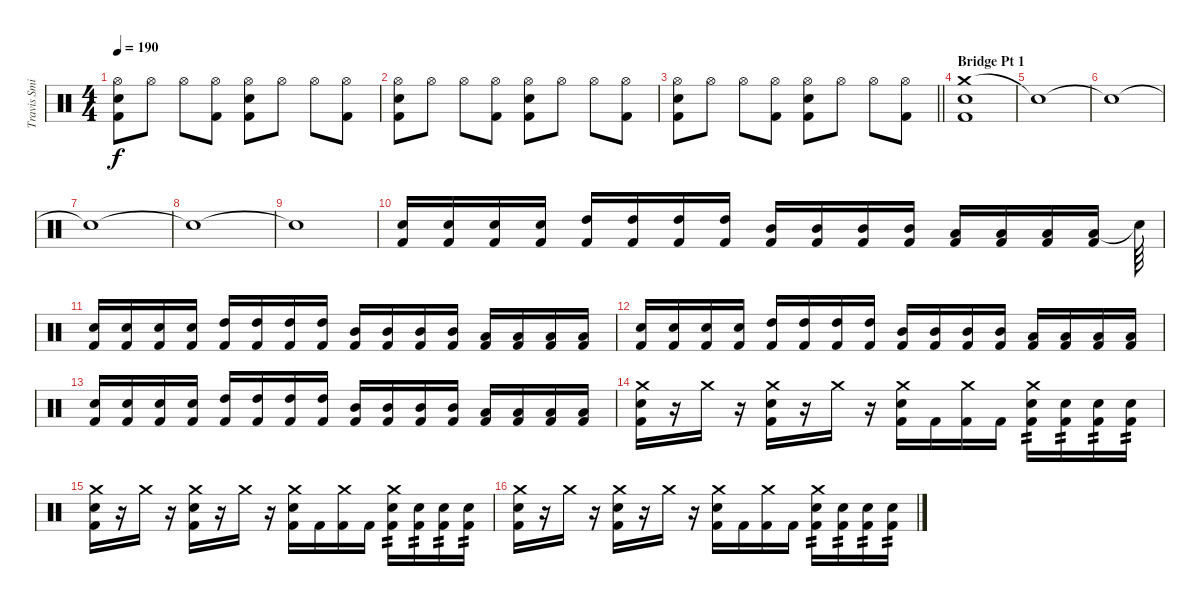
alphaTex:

\track ("Travis Smith" "Travis Smi") {instrument percussion}
\staff {score}
\articulation defaults
\ts (4 4)
\tempo 190
\clef neutral
\ks c
("Hi-Hat (open)" "Electric Snare (hit)" "Kick (hit) 2").8{dy f} "Hi-Hat (open)".8 "Hi-Hat (open)".8 ("Hi-Hat (open)" "Kick (hit) 2").8 ("Hi-Hat (open)" "Electric Snare (hit)" "Kick (hit) 2").8 "Hi-Hat (open)".8 "Hi-Hat (open)".8 ("Hi-Hat (open)" "Kick (hit) 2").8 |
("Hi-Hat (open)" "Electric Snare (hit)" "Kick (hit) 2").8 "Hi-Hat (open)".8 "Hi-Hat (open)".8 ("Hi-Hat (open)" "Kick (hit) 2").8 ("Hi-Hat (open)" "Electric Snare (hit)" "Kick (hit) 2").8 "Hi-Hat (open)".8 "Hi-Hat (open)".8 ("Hi-Hat (open)" "Kick (hit) 2").8 |
\barLineRight lightlight
("Hi-Hat (open)" "Electric Snare (hit)" "Kick (hit) 2").8 "Hi-Hat (open)".8 "Hi-Hat (open)".8 ("Hi-Hat (open)" "Kick (hit) 2").8 ("Hi-Hat (open)" "Electric Snare (hit)" "Kick (hit) 2").8 "Hi-Hat (open)".8 "Hi-Hat (open)".8 ("Hi-Hat (open)" "Kick (hit) 2").8 |
\section ("" "Bridge Pt 1")
("Crash medium (hit)" "Electric Snare (hit)" "Kick (hit) 2").1 |
"Snare (hit)"{t}.1 |
"Snare (hit)"{t}.1 |
"Snare (hit)"{t}.1 |
"Snare (hit)"{t}.1 |
"Snare (hit)"{t}.1 |
("Electric Snare (hit)" "Kick (hit) 2").16 ("Electric Snare (hit)" "Kick (hit) 2").16 ("Electric Snare (hit)" "Kick (hit) 2").16 ("Electric Snare (hit)" "Kick (hit) 2").16 ("High Tom (hit)" "Kick (hit) 2").16 ("High Tom (hit)" "Kick (hit) 2").16 ("High Tom (hit)" "Kick (hit) 2").16 ("High Tom (hit)" "Kick (hit) 2").16 ("Mid Tom (hit)" "Kick (hit) 2").16 ("Mid Tom (hit)" "Kick (hit) 2").16 ("Mid Tom (hit)" "Kick (hit) 2").16 ("Mid Tom (hit)" "Kick (hit) 2").16 ("Low Floor Tom (hit)" "Kick (hit) 2").16 ("Low Floor Tom (hit)" "Kick (hit) 2").16 ("Low Floor Tom (hit)" "Kick (hit) 2").16 ("Low Floor Tom (hit)" "Kick (hit) 2").16 "Snare (hit)"{t}.64 |
("Electric Snare (hit)" "Kick (hit) 2").16 ("Electric Snare (hit)" "Kick (hit) 2").16 ("Electric Snare (hit)" "Kick (hit) 2").16 ("Electric Snare (hit)" "Kick (hit) 2").16 ("High Tom (hit)" "Kick (hit) 2").16 ("High Tom (hit)" "Kick (hit) 2").16 ("High Tom (hit)" "Kick (hit) 2").16 ("High Tom (hit)" "Kick (hit) 2").16 ("Mid Tom (hit)" "Kick (hit) 2").16 ("Mid Tom (hit)" "Kick (hit) 2").16 ("Mid Tom (hit)" "Kick (hit) 2").16 ("Mid Tom (hit)" "Kick (hit) 2").16 ("Low Floor Tom (hit)" "Kick (hit) 2").16 ("Low Floor Tom (hit)" "Kick (hit) 2").16 ("Low Floor Tom (hit)" "Kick (hit) 2").16 ("Low Floor Tom (hit)" "Kick (hit) 2").16 |
("Electric Snare (hit)" "Kick (hit) 2").16 ("Electric Snare (hit)" "Kick (hit) 2").16 ("Electric Snare (hit)" "Kick (hit) 2").16 ("Electric Snare (hit)" "Kick (hit) 2").16 ("High Tom (hit)" "Kick (hit) 2").16 ("High Tom (hit)" "Kick (hit) 2").16 ("High Tom (hit)" "Kick (hit) 2").16 ("High Tom (hit)" "Kick (hit) 2").16 ("Mid Tom (hit)" "Kick (hit) 2").16 ("Mid Tom (hit)" "Kick (hit) 2").16 ("Mid Tom (hit)" "Kick (hit) 2").16 ("Mid Tom (hit)" "Kick (hit) 2").16 ("Low Floor Tom (hit)" "Kick (hit) 2").16 ("Low Floor Tom (hit)" "Kick (hit) 2").16 ("Low Floor Tom (hit)" "Kick (hit) 2").16 ("Low Floor Tom (hit)" "Kick (hit) 2").16 |
("Electric Snare (hit)" "Kick (hit) 2").16 ("Electric Snare (hit)" "Kick (hit) 2").16 ("Electric Snare (hit)" "Kick (hit) 2").16 ("Electric Snare (hit)" "Kick (hit) 2").16 ("High Tom (hit)" "Kick (hit) 2").16 ("High Tom (hit)" "Kick (hit) 2").16 ("High Tom (hit)" "Kick (hit) 2").16 ("High Tom (hit)" "Kick (hit) 2").16 ("Mid Tom (hit)" "Kick (hit) 2").16 ("Mid Tom (hit)" "Kick (hit) 2").16 ("Mid Tom (hit)" "Kick (hit) 2").16 ("Mid Tom (hit)" "Kick (hit) 2").16 ("Low Floor Tom (hit)" "Kick (hit) 2").16 ("Low Floor Tom (hit)" "Kick (hit) 2").16 ("Low Floor Tom (hit)" "Kick (hit) 2").16 ("Low Floor Tom (hit)" "Kick (hit) 2").16 |
("Crash medium (hit)" "Electric Snare (hit)" "Kick (hit) 2").16 r.16 "Crash medium (hit)".16 r.16 ("Crash medium (hit)" "Electric Snare (hit)" "Kick (hit) 2").16 r.16 "Crash medium (hit)".16 r.16 ("Crash medium (hit)" "Electric Snare (hit)" "Kick (hit) 2").16 "Kick (hit) 2".16 ("Crash medium (hit)" "Kick (hit) 2").16 "Kick (hit) 2".16 ("Crash medium (hit)" "Electric Snare (hit)" "Kick (hit) 2").16{tp 2} ("Electric Snare (hit)" "Kick (hit) 2").16{tp 2} ("Electric Snare (hit)" "Kick (hit) 2").16{tp 2} ("Electric Snare (hit)" "Kick (hit) 2").16{tp 2} |
("Crash medium (hit)" "Electric Snare (hit)" "Kick (hit) 2").16 r.16 "Crash medium (hit)".16 r.16 ("Crash medium (hit)" "Electric Snare (hit)" "Kick (hit) 2").16 r.16 "Crash medium (hit)".16 r.16 ("Crash medium (hit)" "Electric Snare (hit)" "Kick (hit) 2").16 "Kick (hit) 2".16 ("Crash medium (hit)" "Kick (hit) 2").16 "Kick (hit) 2".16 ("Crash medium (hit)" "Electric Snare (hit)" "Kick (hit) 2").16{tp 2} ("Electric Snare (hit)" "Kick (hit) 2").16{tp 2} ("Electric Snare (hit)" "Kick (hit) 2").16{tp 2} ("Electric Snare (hit)" "Kick (hit) 2").16{tp 2} |
("Crash medium (hit)" "Electric Snare (hit)" "Kick (hit) 2").16 r.16 "Crash medium (hit)".16 r.16 ("Crash medium (hit)" "Electric Snare (hit)" "Kick (hit) 2").16 r.16 "Crash medium (hit)".16 r.16 ("Crash medium (hit)" "Electric Snare (hit)" "Kick (hit) 2").16 "Kick (hit) 2".16 ("Crash medium (hit)" "Kick (hit) 2").16 "Kick (hit) 2".16 ("Crash medium (hit)" "Electric Snare (hit)" "Kick (hit) 2").16{tp 2} ("Electric Snare (hit)" "Kick (hit) 2").16{tp 2} ("Electric Snare (hit)" "Kick (hit) 2").16{tp 2} ("Electric Snare (hit)" "Kick (hit) 2").16{tp 2}
